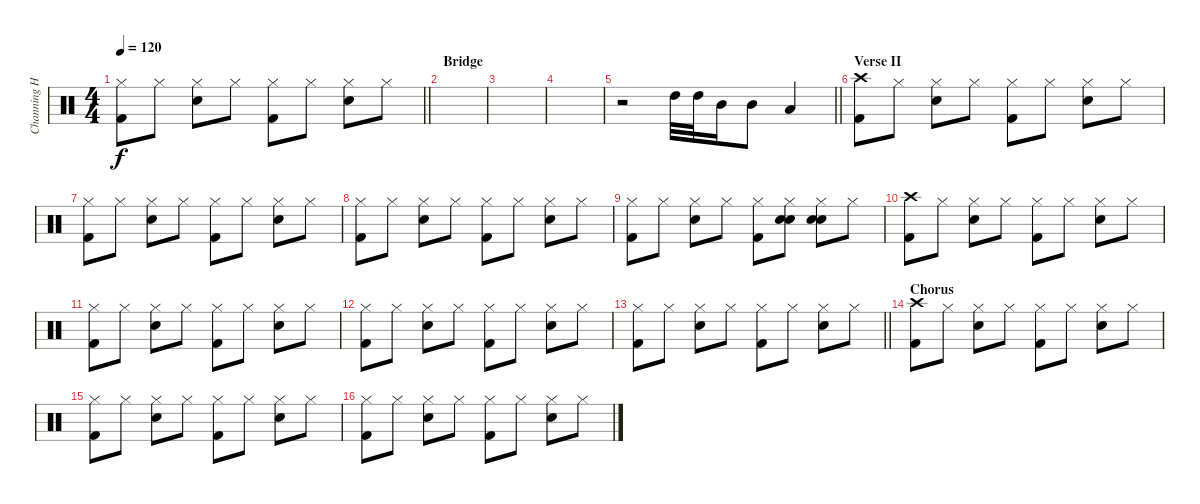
\track ("Channing Holmes' drums" "Channing H") {instrument percussion}
\staff {score}
\articulation defaults
\ts (4 4)
\tempo 120
\clef neutral
\barLineRight lightlight
\ks c
("Hi-Hat (closed)" "Kick (hit) 2").8{dy f} "Hi-Hat (closed)".8 ("Hi-Hat (closed)" "Snare (hit) 2").8 "Hi-Hat (closed)".8 ("Hi-Hat (closed)" "Kick (hit) 2").8 "Hi-Hat (closed)".8 ("Hi-Hat (closed)" "Snare (hit) 2").8 "Hi-Hat (closed)".8 |
\section ("" "Bridge")
|
|
|
\barLineRight lightlight
r.2 "High Tom (hit)".32 "High Tom (hit)".32 "Mid Tom (hit)".16 "Mid Tom (hit)".8 "Low Tom (hit)".4 |
\section ("" "Verse II")
("Crash high (hit)" "Kick (hit) 2").8 "Hi-Hat (closed)".8 ("Hi-Hat (closed)" "Snare (hit) 2").8 "Hi-Hat (closed)".8 ("Hi-Hat (closed)" "Kick (hit) 2").8 "Hi-Hat (closed)".8 ("Hi-Hat (closed)" "Snare (hit) 2").8 "Hi-Hat (closed)".8 |
("Hi-Hat (closed)" "Kick (hit) 2").8 "Hi-Hat (closed)".8 ("Hi-Hat (closed)" "Snare (hit) 2").8 "Hi-Hat (closed)".8 ("Hi-Hat (closed)" "Kick (hit) 2").8 "Hi-Hat (closed)".8 ("Hi-Hat (closed)" "Snare (hit) 2").8 "Hi-Hat (closed)".8 |
("Hi-Hat (closed)" "Kick (hit) 2").8 "Hi-Hat (closed)".8 ("Hi-Hat (closed)" "Snare (hit) 2").8 "Hi-Hat (closed)".8 ("Hi-Hat (closed)" "Kick (hit) 2").8 "Hi-Hat (closed)".8 ("Hi-Hat (closed)" "Snare (hit) 2").8 "Hi-Hat (closed)".8 |
("Hi-Hat (closed)" "Kick (hit) 2").8 "Hi-Hat (closed)".8 ("Hi-Hat (closed)" "Snare (hit) 2").8 "Hi-Hat (closed)".8 ("Hi-Hat (closed)" "Kick (hit) 2").8 ("Hand Clap (hit)" "Hi-Hat (closed)" "Snare (hit) 2").8 ("Hand Clap (hit)" "Hi-Hat (closed)" "Snare (hit) 2").8 "Hi-Hat (closed)".8 |
("Crash high (hit)" "Kick (hit) 2").8 "Hi-Hat (closed)".8 ("Hi-Hat (closed)" "Snare (hit) 2").8 "Hi-Hat (closed)".8 ("Hi-Hat (closed)" "Kick (hit) 2").8 "Hi-Hat (closed)".8 ("Hi-Hat (closed)" "Snare (hit) 2").8 "Hi-Hat (closed)".8 |
("Hi-Hat (closed)" "Kick (hit) 2").8 "Hi-Hat (closed)".8 ("Hi-Hat (closed)" "Snare (hit) 2").8 "Hi-Hat (closed)".8 ("Hi-Hat (closed)" "Kick (hit) 2").8 "Hi-Hat (closed)".8 ("Hi-Hat (closed)" "Snare (hit) 2").8 "Hi-Hat (closed)".8 |
("Hi-Hat (closed)" "Kick (hit) 2").8 "Hi-Hat (closed)".8 ("Hi-Hat (closed)" "Snare (hit) 2").8 "Hi-Hat (closed)".8 ("Hi-Hat (closed)" "Kick (hit) 2").8 "Hi-Hat (closed)".8 ("Hi-Hat (closed)" "Snare (hit) 2").8 "Hi-Hat (closed)".8 |
\barLineRight lightlight
("Hi-Hat (closed)" "Kick (hit) 2").8 "Hi-Hat (closed)".8 ("Hi-Hat (closed)" "Snare (hit) 2").8 "Hi-Hat (closed)".8 ("Hi-Hat (closed)" "Kick (hit) 2").8 "Hi-Hat (closed)".8 ("Hi-Hat (closed)" "Snare (hit) 2").8 "Hi-Hat (closed)".8 |
\section ("" "Chorus")
("Crash high (hit)" "Kick (hit) 2").8 "Hi-Hat (closed)".8 ("Hi-Hat (closed)" "Snare (hit) 2").8 "Hi-Hat (closed)".8 ("Hi-Hat (closed)" "Kick (hit) 2").8 "Hi-Hat (closed)".8 ("Hi-Hat (closed)" "Snare (hit) 2").8 "Hi-Hat (closed)".8 |
("Hi-Hat (closed)" "Kick (hit) 2").8 "Hi-Hat (closed)".8 ("Hi-Hat (closed)" "Snare (hit) 2").8 "Hi-Hat (closed)".8 ("Hi-Hat (closed)" "Kick (hit) 2").8 "Hi-Hat (closed)".8 ("Hi-Hat (closed)" "Snare (hit) 2").8 "Hi-Hat (closed)".8 |
("Hi-Hat (closed)" "Kick (hit) 2").8 "Hi-Hat (closed)".8 ("Hi-Hat (closed)" "Snare (hit) 2").8 "Hi-Hat (closed)".8 ("Hi-Hat (closed)" "Kick (hit) 2").8 "Hi-Hat (closed)".8 ("Hi-Hat (closed)" "Snare (hit) 2").8 "Hi-Hat (closed)".8
